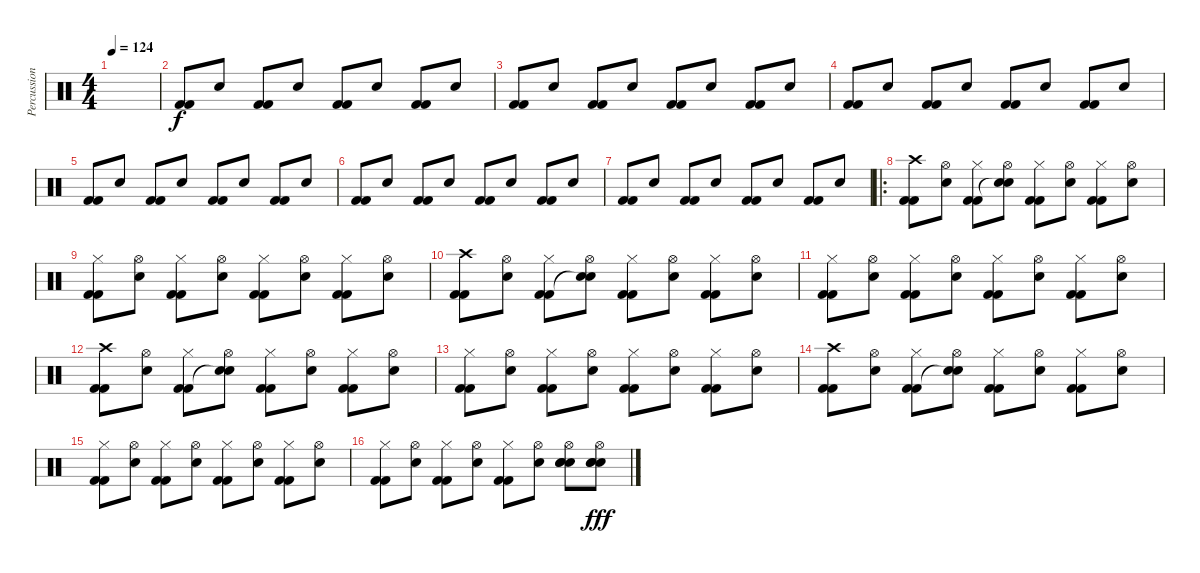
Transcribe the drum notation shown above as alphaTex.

\track ("Percussions" "Percussion") {instrument percussion}
\staff {score}
\articulation defaults
\ts (4 4)
\tempo 124
\clef neutral
\ks c
|
("Kick (hit) 2" "Kick (hit) 2").8 "Hand Clap (hit)".8 ("Kick (hit) 2" "Kick (hit) 2").8 "Hand Clap (hit)".8 ("Kick (hit) 2" "Kick (hit) 2").8 "Hand Clap (hit)".8 ("Kick (hit) 2" "Kick (hit) 2").8 "Hand Clap (hit)".8 |
("Kick (hit) 2" "Kick (hit) 2").8 "Hand Clap (hit)".8 ("Kick (hit) 2" "Kick (hit) 2").8 "Hand Clap (hit)".8 ("Kick (hit) 2" "Kick (hit) 2").8 "Hand Clap (hit)".8 ("Kick (hit) 2" "Kick (hit) 2").8 "Hand Clap (hit)".8 |
("Kick (hit) 2" "Kick (hit) 2").8 "Hand Clap (hit)".8 ("Kick (hit) 2" "Kick (hit) 2").8 "Hand Clap (hit)".8 ("Kick (hit) 2" "Kick (hit) 2").8 "Hand Clap (hit)".8 ("Kick (hit) 2" "Kick (hit) 2").8 "Hand Clap (hit)".8 |
("Kick (hit) 2" "Kick (hit) 2").8 "Hand Clap (hit)".8 ("Kick (hit) 2" "Kick (hit) 2").8 "Hand Clap (hit)".8 ("Kick (hit) 2" "Kick (hit) 2").8 "Hand Clap (hit)".8 ("Kick (hit) 2" "Kick (hit) 2").8 "Hand Clap (hit)".8 |
("Kick (hit) 2" "Kick (hit) 2").8 "Hand Clap (hit)".8 ("Kick (hit) 2" "Kick (hit) 2").8 "Hand Clap (hit)".8 ("Kick (hit) 2" "Kick (hit) 2").8 "Hand Clap (hit)".8 ("Kick (hit) 2" "Kick (hit) 2").8 "Hand Clap (hit)".8 |
("Kick (hit) 2" "Kick (hit) 2").8 "Hand Clap (hit)".8 ("Kick (hit) 2" "Kick (hit) 2").8 "Hand Clap (hit)".8 ("Kick (hit) 2" "Kick (hit) 2").8 "Hand Clap (hit)".8 ("Kick (hit) 2" "Kick (hit) 2").8 "Hand Clap (hit)".8 |
\ro
("Kick (hit) 2" "Kick (hit) 2" "Crash high (hit)").8 ("Hand Clap (hit)" "Hi-Hat (open)").8 ("Kick (hit) 2" "Kick (hit) 2" "Hi-Hat (closed)").8 ("Hand Clap (hit)" "Snare (hit)"{t} "Hi-Hat (open)").8 ("Kick (hit) 2" "Kick (hit) 2" "Hi-Hat (closed)").8 ("Hand Clap (hit)" "Hi-Hat (open)").8 ("Kick (hit) 2" "Kick (hit) 2" "Hi-Hat (closed)").8 ("Hand Clap (hit)" "Hi-Hat (open)").8 |
("Kick (hit) 2" "Kick (hit) 2" "Hi-Hat (closed)").8 ("Hand Clap (hit)" "Hi-Hat (open)").8 ("Kick (hit) 2" "Kick (hit) 2" "Hi-Hat (closed)").8 ("Hand Clap (hit)" "Hi-Hat (open)").8 ("Kick (hit) 2" "Kick (hit) 2" "Hi-Hat (closed)").8 ("Hand Clap (hit)" "Hi-Hat (open)").8 ("Kick (hit) 2" "Kick (hit) 2" "Hi-Hat (closed)").8 ("Hand Clap (hit)" "Hi-Hat (open)").8 |
("Kick (hit) 2" "Kick (hit) 2" "Crash high (hit)").8 ("Hand Clap (hit)" "Hi-Hat (open)").8 ("Kick (hit) 2" "Kick (hit) 2" "Hi-Hat (closed)").8 ("Hand Clap (hit)" "Snare (hit)"{t} "Hi-Hat (open)").8 ("Kick (hit) 2" "Kick (hit) 2" "Hi-Hat (closed)").8 ("Hand Clap (hit)" "Hi-Hat (open)").8 ("Kick (hit) 2" "Kick (hit) 2" "Hi-Hat (closed)").8 ("Hand Clap (hit)" "Hi-Hat (open)").8 |
("Kick (hit) 2" "Kick (hit) 2" "Hi-Hat (closed)").8 ("Hand Clap (hit)" "Hi-Hat (open)").8 ("Kick (hit) 2" "Kick (hit) 2" "Hi-Hat (closed)").8 ("Hand Clap (hit)" "Hi-Hat (open)").8 ("Kick (hit) 2" "Kick (hit) 2" "Hi-Hat (closed)").8 ("Hand Clap (hit)" "Hi-Hat (open)").8 ("Kick (hit) 2" "Kick (hit) 2" "Hi-Hat (closed)").8 ("Hand Clap (hit)" "Hi-Hat (open)").8 |
("Kick (hit) 2" "Kick (hit) 2" "Crash high (hit)").8 ("Hand Clap (hit)" "Hi-Hat (open)").8 ("Kick (hit) 2" "Kick (hit) 2" "Hi-Hat (closed)").8 ("Hand Clap (hit)" "Snare (hit)"{t} "Hi-Hat (open)").8 ("Kick (hit) 2" "Kick (hit) 2" "Hi-Hat (closed)").8 ("Hand Clap (hit)" "Hi-Hat (open)").8 ("Kick (hit) 2" "Kick (hit) 2" "Hi-Hat (closed)").8 ("Hand Clap (hit)" "Hi-Hat (open)").8 |
("Kick (hit) 2" "Kick (hit) 2" "Hi-Hat (closed)").8 ("Hand Clap (hit)" "Hi-Hat (open)").8 ("Kick (hit) 2" "Kick (hit) 2" "Hi-Hat (closed)").8 ("Hand Clap (hit)" "Hi-Hat (open)").8 ("Kick (hit) 2" "Kick (hit) 2" "Hi-Hat (closed)").8 ("Hand Clap (hit)" "Hi-Hat (open)").8 ("Kick (hit) 2" "Kick (hit) 2" "Hi-Hat (closed)").8 ("Hand Clap (hit)" "Hi-Hat (open)").8 |
("Kick (hit) 2" "Kick (hit) 2" "Crash high (hit)").8 ("Hand Clap (hit)" "Hi-Hat (open)").8 ("Kick (hit) 2" "Kick (hit) 2" "Hi-Hat (closed)").8 ("Hand Clap (hit)" "Snare (hit)"{t} "Hi-Hat (open)").8 ("Kick (hit) 2" "Kick (hit) 2" "Hi-Hat (closed)").8 ("Hand Clap (hit)" "Hi-Hat (open)").8 ("Kick (hit) 2" "Kick (hit) 2" "Hi-Hat (closed)").8 ("Hand Clap (hit)" "Hi-Hat (open)").8 |
("Kick (hit) 2" "Kick (hit) 2" "Hi-Hat (closed)").8 ("Hand Clap (hit)" "Hi-Hat (open)").8 ("Kick (hit) 2" "Kick (hit) 2" "Hi-Hat (closed)").8 ("Hand Clap (hit)" "Hi-Hat (open)").8 ("Kick (hit) 2" "Kick (hit) 2" "Hi-Hat (closed)").8 ("Hand Clap (hit)" "Hi-Hat (open)").8 ("Kick (hit) 2" "Kick (hit) 2" "Hi-Hat (closed)").8 ("Hand Clap (hit)" "Hi-Hat (open)").8 |
("Kick (hit) 2" "Kick (hit) 2" "Hi-Hat (closed)").8 ("Hand Clap (hit)" "Hi-Hat (open)").8 ("Kick (hit) 2" "Kick (hit) 2" "Hi-Hat (closed)").8 ("Hand Clap (hit)" "Hi-Hat (open)").8 ("Kick (hit) 2" "Kick (hit) 2" "Hi-Hat (closed)").8 ("Hand Clap (hit)" "Hi-Hat (open)").8 ("Hand Clap (hit)" "Electric Snare (hit)" "Electric Snare (hit)" "Hi-Hat (open)").8 ("Hand Clap (hit)" "Electric Snare (hit)" "Electric Snare (hit)" "Hi-Hat (open)").8{dy fff}
